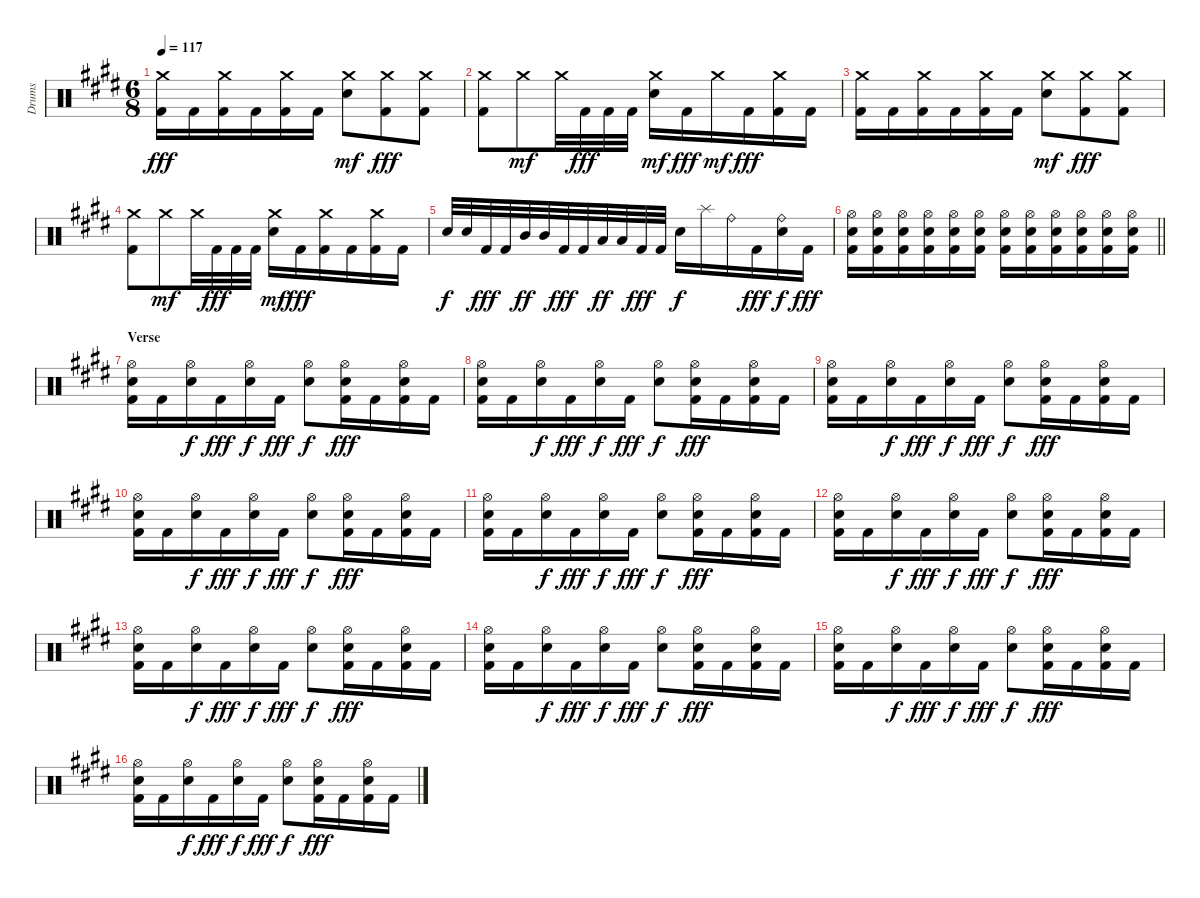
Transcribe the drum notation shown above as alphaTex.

\track ("Drums" "Drums") {instrument percussion}
\staff {score}
\articulation defaults
\ts (6 8)
\tempo 117
\clef neutral
\ks c#minor
("Crash medium (hit)" "Kick (hit) 2").16{dy fff} "Kick (hit) 2".16 ("Crash medium (hit)" "Kick (hit) 2").16 "Kick (hit) 2".16 ("Crash medium (hit)" "Kick (hit) 2").16 "Kick (hit) 2".16 ("Crash medium (hit)" "Electric Snare (hit)").8{dy mf} ("Crash medium (hit)" "Kick (hit) 2").8{dy fff} ("Crash medium (hit)" "Kick (hit) 2").8 |
("Crash medium (hit)" "Kick (hit) 2").8 "Crash medium (hit)".8{dy mf} "Crash medium (hit)".32 "Kick (hit) 2".32{dy fff} "Kick (hit) 2".32 "Kick (hit) 2".32 ("Crash medium (hit)" "Electric Snare (hit)").16{dy mf} "Kick (hit) 2".16{dy fff} "Crash medium (hit)".16{dy mf} "Kick (hit) 2".16{dy fff} ("Crash medium (hit)" "Kick (hit) 2").16 "Kick (hit) 2".16 |
("Crash medium (hit)" "Kick (hit) 2").16 "Kick (hit) 2".16 ("Crash medium (hit)" "Kick (hit) 2").16 "Kick (hit) 2".16 ("Crash medium (hit)" "Kick (hit) 2").16 "Kick (hit) 2".16 ("Crash medium (hit)" "Electric Snare (hit)").8{dy mf} ("Crash medium (hit)" "Kick (hit) 2").8{dy fff} ("Crash medium (hit)" "Kick (hit) 2").8 |
("Crash medium (hit)" "Kick (hit) 2").8 "Crash medium (hit)".8{dy mf} "Crash medium (hit)".32 "Kick (hit) 2".32{dy fff} "Kick (hit) 2".32 "Kick (hit) 2".32 ("Crash medium (hit)" "Electric Snare (hit)").16{dy mf} "Kick (hit) 2".16{dy fff} ("Crash medium (hit)" "Kick (hit) 2").16 "Kick (hit) 2".16 ("Crash medium (hit)" "Kick (hit) 2").16 "Kick (hit) 2".16 |
"Electric Snare (hit)".32{dy f} "Electric Snare (hit)".32 "Kick (hit) 2".32{dy fff} "Kick (hit) 2".32 "Mid Tom (hit)".32{dy ff} "Mid Tom (hit)".32 "Kick (hit) 2".32{dy fff} "Kick (hit) 2".32 "Low Tom (hit)".32{dy ff} "Low Tom (hit)".32 "Kick (hit) 2".32{dy fff} "Kick (hit) 2".32 "Electric Snare (hit)".16{dy f} "Splash (hit)".16 "Ride (bell)".16 "Kick (hit) 2".16{dy fff} ("Ride (bell)" "Electric Snare (hit)").16{dy f} "Kick (hit) 2".16{dy fff} |
\barLineRight lightlight
("Hi-Hat (open)" "Electric Snare (hit)" "Kick (hit) 2").16 ("Hi-Hat (open)" "Electric Snare (hit)" "Kick (hit) 2").16 ("Hi-Hat (open)" "Electric Snare (hit)" "Kick (hit) 2").16 ("Hi-Hat (open)" "Electric Snare (hit)" "Kick (hit) 2").16 ("Hi-Hat (open)" "Electric Snare (hit)" "Kick (hit) 2").16 ("Hi-Hat (open)" "Electric Snare (hit)" "Kick (hit) 2").16 ("Hi-Hat (open)" "Electric Snare (hit)" "Kick (hit) 2").16 ("Hi-Hat (open)" "Electric Snare (hit)" "Kick (hit) 2").16 ("Hi-Hat (open)" "Electric Snare (hit)" "Kick (hit) 2").16 ("Hi-Hat (open)" "Electric Snare (hit)" "Kick (hit) 2").16 ("Hi-Hat (open)" "Electric Snare (hit)" "Kick (hit) 2").16 ("Hi-Hat (open)" "Electric Snare (hit)" "Kick (hit) 2").16 |
\section ("" "Verse")
("Hi-Hat (open)" "Electric Snare (hit)" "Kick (hit) 2").16 "Kick (hit) 2".16 ("Hi-Hat (open)" "Electric Snare (hit)").16{dy f} "Kick (hit) 2".16{dy fff} ("Hi-Hat (open)" "Electric Snare (hit)").16{dy f} "Kick (hit) 2".16{dy fff} ("Hi-Hat (open)" "Electric Snare (hit)").8{dy f} ("Hi-Hat (open)" "Electric Snare (hit)" "Kick (hit) 2").16{dy fff} "Kick (hit) 2".16 ("Hi-Hat (open)" "Electric Snare (hit)" "Kick (hit) 2").16 "Kick (hit) 2".16 |
("Hi-Hat (open)" "Electric Snare (hit)" "Kick (hit) 2").16 "Kick (hit) 2".16 ("Hi-Hat (open)" "Electric Snare (hit)").16{dy f} "Kick (hit) 2".16{dy fff} ("Hi-Hat (open)" "Electric Snare (hit)").16{dy f} "Kick (hit) 2".16{dy fff} ("Hi-Hat (open)" "Electric Snare (hit)").8{dy f} ("Hi-Hat (open)" "Electric Snare (hit)" "Kick (hit) 2").16{dy fff} "Kick (hit) 2".16 ("Hi-Hat (open)" "Electric Snare (hit)" "Kick (hit) 2").16 "Kick (hit) 2".16 |
("Hi-Hat (open)" "Electric Snare (hit)" "Kick (hit) 2").16 "Kick (hit) 2".16 ("Hi-Hat (open)" "Electric Snare (hit)").16{dy f} "Kick (hit) 2".16{dy fff} ("Hi-Hat (open)" "Electric Snare (hit)").16{dy f} "Kick (hit) 2".16{dy fff} ("Hi-Hat (open)" "Electric Snare (hit)").8{dy f} ("Hi-Hat (open)" "Electric Snare (hit)" "Kick (hit) 2").16{dy fff} "Kick (hit) 2".16 ("Hi-Hat (open)" "Electric Snare (hit)" "Kick (hit) 2").16 "Kick (hit) 2".16 |
("Hi-Hat (open)" "Electric Snare (hit)" "Kick (hit) 2").16 "Kick (hit) 2".16 ("Hi-Hat (open)" "Electric Snare (hit)").16{dy f} "Kick (hit) 2".16{dy fff} ("Hi-Hat (open)" "Electric Snare (hit)").16{dy f} "Kick (hit) 2".16{dy fff} ("Hi-Hat (open)" "Electric Snare (hit)").8{dy f} ("Hi-Hat (open)" "Electric Snare (hit)" "Kick (hit) 2").16{dy fff} "Kick (hit) 2".16 ("Hi-Hat (open)" "Electric Snare (hit)" "Kick (hit) 2").16 "Kick (hit) 2".16 |
("Hi-Hat (open)" "Electric Snare (hit)" "Kick (hit) 2").16 "Kick (hit) 2".16 ("Hi-Hat (open)" "Electric Snare (hit)").16{dy f} "Kick (hit) 2".16{dy fff} ("Hi-Hat (open)" "Electric Snare (hit)").16{dy f} "Kick (hit) 2".16{dy fff} ("Hi-Hat (open)" "Electric Snare (hit)").8{dy f} ("Hi-Hat (open)" "Electric Snare (hit)" "Kick (hit) 2").16{dy fff} "Kick (hit) 2".16 ("Hi-Hat (open)" "Electric Snare (hit)" "Kick (hit) 2").16 "Kick (hit) 2".16 |
("Hi-Hat (open)" "Electric Snare (hit)" "Kick (hit) 2").16 "Kick (hit) 2".16 ("Hi-Hat (open)" "Electric Snare (hit)").16{dy f} "Kick (hit) 2".16{dy fff} ("Hi-Hat (open)" "Electric Snare (hit)").16{dy f} "Kick (hit) 2".16{dy fff} ("Hi-Hat (open)" "Electric Snare (hit)").8{dy f} ("Hi-Hat (open)" "Electric Snare (hit)" "Kick (hit) 2").16{dy fff} "Kick (hit) 2".16 ("Hi-Hat (open)" "Electric Snare (hit)" "Kick (hit) 2").16 "Kick (hit) 2".16 |
("Hi-Hat (open)" "Electric Snare (hit)" "Kick (hit) 2").16 "Kick (hit) 2".16 ("Hi-Hat (open)" "Electric Snare (hit)").16{dy f} "Kick (hit) 2".16{dy fff} ("Hi-Hat (open)" "Electric Snare (hit)").16{dy f} "Kick (hit) 2".16{dy fff} ("Hi-Hat (open)" "Electric Snare (hit)").8{dy f} ("Hi-Hat (open)" "Electric Snare (hit)" "Kick (hit) 2").16{dy fff} "Kick (hit) 2".16 ("Hi-Hat (open)" "Electric Snare (hit)" "Kick (hit) 2").16 "Kick (hit) 2".16 |
("Hi-Hat (open)" "Electric Snare (hit)" "Kick (hit) 2").16 "Kick (hit) 2".16 ("Hi-Hat (open)" "Electric Snare (hit)").16{dy f} "Kick (hit) 2".16{dy fff} ("Hi-Hat (open)" "Electric Snare (hit)").16{dy f} "Kick (hit) 2".16{dy fff} ("Hi-Hat (open)" "Electric Snare (hit)").8{dy f} ("Hi-Hat (open)" "Electric Snare (hit)" "Kick (hit) 2").16{dy fff} "Kick (hit) 2".16 ("Hi-Hat (open)" "Electric Snare (hit)" "Kick (hit) 2").16 "Kick (hit) 2".16 |
("Hi-Hat (open)" "Electric Snare (hit)" "Kick (hit) 2").16 "Kick (hit) 2".16 ("Hi-Hat (open)" "Electric Snare (hit)").16{dy f} "Kick (hit) 2".16{dy fff} ("Hi-Hat (open)" "Electric Snare (hit)").16{dy f} "Kick (hit) 2".16{dy fff} ("Hi-Hat (open)" "Electric Snare (hit)").8{dy f} ("Hi-Hat (open)" "Electric Snare (hit)" "Kick (hit) 2").16{dy fff} "Kick (hit) 2".16 ("Hi-Hat (open)" "Electric Snare (hit)" "Kick (hit) 2").16 "Kick (hit) 2".16 |
("Hi-Hat (open)" "Electric Snare (hit)" "Kick (hit) 2").16 "Kick (hit) 2".16 ("Hi-Hat (open)" "Electric Snare (hit)").16{dy f} "Kick (hit) 2".16{dy fff} ("Hi-Hat (open)" "Electric Snare (hit)").16{dy f} "Kick (hit) 2".16{dy fff} ("Hi-Hat (open)" "Electric Snare (hit)").8{dy f} ("Hi-Hat (open)" "Electric Snare (hit)" "Kick (hit) 2").16{dy fff} "Kick (hit) 2".16 ("Hi-Hat (open)" "Electric Snare (hit)" "Kick (hit) 2").16 "Kick (hit) 2".16
